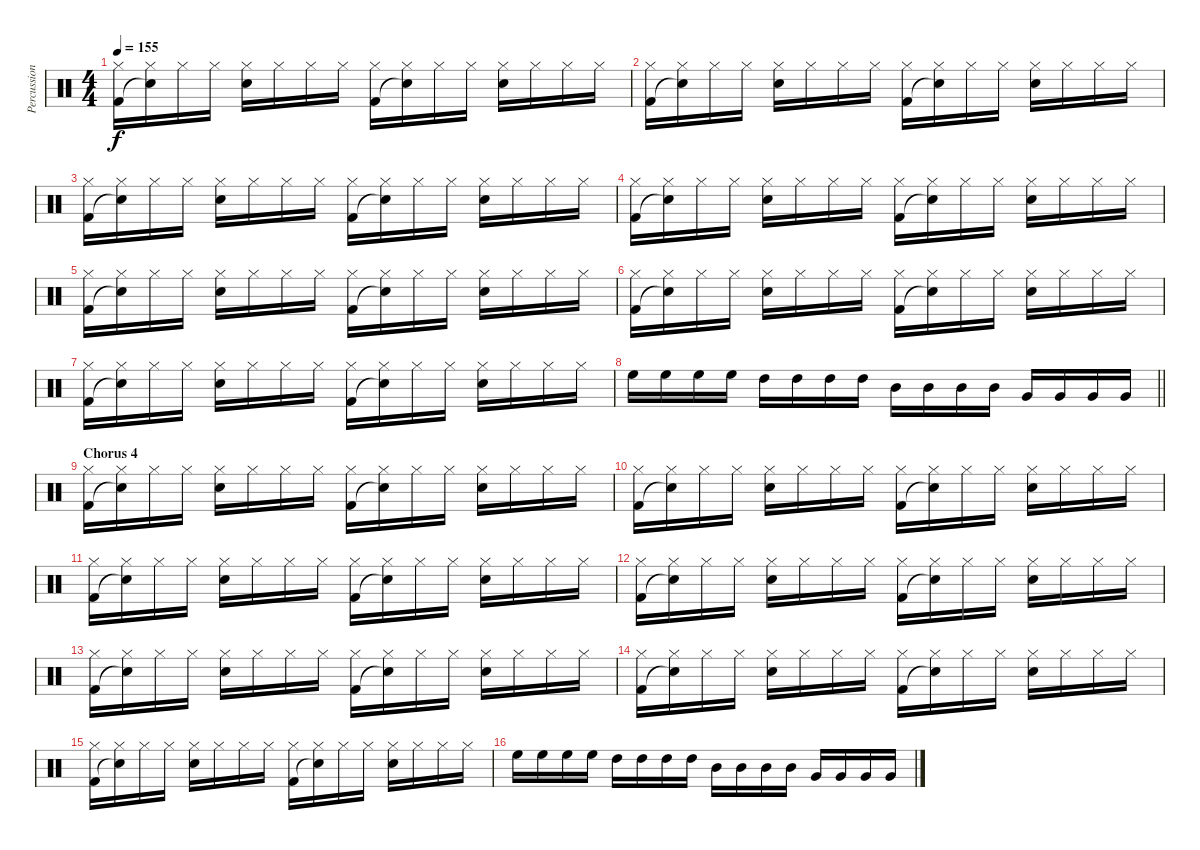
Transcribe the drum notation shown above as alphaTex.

\track ("Percussion" "Percussion") {instrument percussion}
\staff {score}
\articulation defaults
\ts (4 4)
\tempo 155
\clef neutral
\ks c
("Hi-Hat (closed)" "Kick (hit) 2").16{dy f} ("Hi-Hat (closed)" "Snare (hit)"{t}).16 "Hi-Hat (closed)".16 "Hi-Hat (closed)".16 ("Hi-Hat (closed)" "Snare (hit) 2").16 "Hi-Hat (closed)".16 "Hi-Hat (closed)".16 "Hi-Hat (closed)".16 ("Hi-Hat (closed)" "Kick (hit) 2").16 ("Hi-Hat (closed)" "Snare (hit)"{t}).16 "Hi-Hat (closed)".16 "Hi-Hat (closed)".16 ("Hi-Hat (closed)" "Snare (hit) 2").16 "Hi-Hat (closed)".16 "Hi-Hat (closed)".16 "Hi-Hat (closed)".16 |
("Hi-Hat (closed)" "Kick (hit) 2").16 ("Hi-Hat (closed)" "Snare (hit)"{t}).16 "Hi-Hat (closed)".16 "Hi-Hat (closed)".16 ("Hi-Hat (closed)" "Snare (hit) 2").16 "Hi-Hat (closed)".16 "Hi-Hat (closed)".16 "Hi-Hat (closed)".16 ("Hi-Hat (closed)" "Kick (hit) 2").16 ("Hi-Hat (closed)" "Snare (hit)"{t}).16 "Hi-Hat (closed)".16 "Hi-Hat (closed)".16 ("Hi-Hat (closed)" "Snare (hit) 2").16 "Hi-Hat (closed)".16 "Hi-Hat (closed)".16 "Hi-Hat (closed)".16 |
("Hi-Hat (closed)" "Kick (hit) 2").16 ("Hi-Hat (closed)" "Snare (hit)"{t}).16 "Hi-Hat (closed)".16 "Hi-Hat (closed)".16 ("Hi-Hat (closed)" "Snare (hit) 2").16 "Hi-Hat (closed)".16 "Hi-Hat (closed)".16 "Hi-Hat (closed)".16 ("Hi-Hat (closed)" "Kick (hit) 2").16 ("Hi-Hat (closed)" "Snare (hit)"{t}).16 "Hi-Hat (closed)".16 "Hi-Hat (closed)".16 ("Hi-Hat (closed)" "Snare (hit) 2").16 "Hi-Hat (closed)".16 "Hi-Hat (closed)".16 "Hi-Hat (closed)".16 |
("Hi-Hat (closed)" "Kick (hit) 2").16 ("Hi-Hat (closed)" "Snare (hit)"{t}).16 "Hi-Hat (closed)".16 "Hi-Hat (closed)".16 ("Hi-Hat (closed)" "Snare (hit) 2").16 "Hi-Hat (closed)".16 "Hi-Hat (closed)".16 "Hi-Hat (closed)".16 ("Hi-Hat (closed)" "Kick (hit) 2").16 ("Hi-Hat (closed)" "Snare (hit)"{t}).16 "Hi-Hat (closed)".16 "Hi-Hat (closed)".16 ("Hi-Hat (closed)" "Snare (hit) 2").16 "Hi-Hat (closed)".16 "Hi-Hat (closed)".16 "Hi-Hat (closed)".16 |
("Hi-Hat (closed)" "Kick (hit) 2").16 ("Hi-Hat (closed)" "Snare (hit)"{t}).16 "Hi-Hat (closed)".16 "Hi-Hat (closed)".16 ("Hi-Hat (closed)" "Snare (hit) 2").16 "Hi-Hat (closed)".16 "Hi-Hat (closed)".16 "Hi-Hat (closed)".16 ("Hi-Hat (closed)" "Kick (hit) 2").16 ("Hi-Hat (closed)" "Snare (hit)"{t}).16 "Hi-Hat (closed)".16 "Hi-Hat (closed)".16 ("Hi-Hat (closed)" "Snare (hit) 2").16 "Hi-Hat (closed)".16 "Hi-Hat (closed)".16 "Hi-Hat (closed)".16 |
("Hi-Hat (closed)" "Kick (hit) 2").16 ("Hi-Hat (closed)" "Snare (hit)"{t}).16 "Hi-Hat (closed)".16 "Hi-Hat (closed)".16 ("Hi-Hat (closed)" "Snare (hit) 2").16 "Hi-Hat (closed)".16 "Hi-Hat (closed)".16 "Hi-Hat (closed)".16 ("Hi-Hat (closed)" "Kick (hit) 2").16 ("Hi-Hat (closed)" "Snare (hit)"{t}).16 "Hi-Hat (closed)".16 "Hi-Hat (closed)".16 ("Hi-Hat (closed)" "Snare (hit) 2").16 "Hi-Hat (closed)".16 "Hi-Hat (closed)".16 "Hi-Hat (closed)".16 |
("Hi-Hat (closed)" "Kick (hit) 2").16 ("Hi-Hat (closed)" "Snare (hit)"{t}).16 "Hi-Hat (closed)".16 "Hi-Hat (closed)".16 ("Hi-Hat (closed)" "Snare (hit) 2").16 "Hi-Hat (closed)".16 "Hi-Hat (closed)".16 "Hi-Hat (closed)".16 ("Hi-Hat (closed)" "Kick (hit) 2").16 ("Hi-Hat (closed)" "Snare (hit)"{t}).16 "Hi-Hat (closed)".16 "Hi-Hat (closed)".16 ("Hi-Hat (closed)" "Snare (hit) 2").16 "Hi-Hat (closed)".16 "Hi-Hat (closed)".16 "Hi-Hat (closed)".16 |
\barLineRight lightlight "High Floor Tom (hit)".16 "High Floor Tom (hit)".16 "High Floor Tom (hit)".16 "High Floor Tom (hit)".16 "High Tom (hit)".16 "High Tom (hit)".16 "High Tom (hit)".16 "High Tom (hit)".16 "Mid Tom (hit)".16 "Mid Tom (hit)".16 "Mid Tom (hit)".16 "Mid Tom (hit)".16 "Very Low Tom (hit)".16 "Very Low Tom (hit)".16 "Very Low Tom (hit)".16 "Very Low Tom (hit)".16
|
\section ("" "Chorus 4")
("Hi-Hat (closed)" "Kick (hit) 2").16 ("Hi-Hat (closed)" "Snare (hit)"{t}).16 "Hi-Hat (closed)".16 "Hi-Hat (closed)".16 ("Hi-Hat (closed)" "Snare (hit) 2").16 "Hi-Hat (closed)".16 "Hi-Hat (closed)".16 "Hi-Hat (closed)".16 ("Hi-Hat (closed)" "Kick (hit) 2").16 ("Hi-Hat (closed)" "Snare (hit)"{t}).16 "Hi-Hat (closed)".16 "Hi-Hat (closed)".16 ("Hi-Hat (closed)" "Snare (hit) 2").16 "Hi-Hat (closed)".16 "Hi-Hat (closed)".16 "Hi-Hat (closed)".16 |
("Hi-Hat (closed)" "Kick (hit) 2").16 ("Hi-Hat (closed)" "Snare (hit)"{t}).16 "Hi-Hat (closed)".16 "Hi-Hat (closed)".16 ("Hi-Hat (closed)" "Snare (hit) 2").16 "Hi-Hat (closed)".16 "Hi-Hat (closed)".16 "Hi-Hat (closed)".16 ("Hi-Hat (closed)" "Kick (hit) 2").16 ("Hi-Hat (closed)" "Snare (hit)"{t}).16 "Hi-Hat (closed)".16 "Hi-Hat (closed)".16 ("Hi-Hat (closed)" "Snare (hit) 2").16 "Hi-Hat (closed)".16 "Hi-Hat (closed)".16 "Hi-Hat (closed)".16 |
("Hi-Hat (closed)" "Kick (hit) 2").16 ("Hi-Hat (closed)" "Snare (hit)"{t}).16 "Hi-Hat (closed)".16 "Hi-Hat (closed)".16 ("Hi-Hat (closed)" "Snare (hit) 2").16 "Hi-Hat (closed)".16 "Hi-Hat (closed)".16 "Hi-Hat (closed)".16 ("Hi-Hat (closed)" "Kick (hit) 2").16 ("Hi-Hat (closed)" "Snare (hit)"{t}).16 "Hi-Hat (closed)".16 "Hi-Hat (closed)".16 ("Hi-Hat (closed)" "Snare (hit) 2").16 "Hi-Hat (closed)".16 "Hi-Hat (closed)".16 "Hi-Hat (closed)".16 |
("Hi-Hat (closed)" "Kick (hit) 2").16 ("Hi-Hat (closed)" "Snare (hit)"{t}).16 "Hi-Hat (closed)".16 "Hi-Hat (closed)".16 ("Hi-Hat (closed)" "Snare (hit) 2").16 "Hi-Hat (closed)".16 "Hi-Hat (closed)".16 "Hi-Hat (closed)".16 ("Hi-Hat (closed)" "Kick (hit) 2").16 ("Hi-Hat (closed)" "Snare (hit)"{t}).16 "Hi-Hat (closed)".16 "Hi-Hat (closed)".16 ("Hi-Hat (closed)" "Snare (hit) 2").16 "Hi-Hat (closed)".16 "Hi-Hat (closed)".16 "Hi-Hat (closed)".16 |
("Hi-Hat (closed)" "Kick (hit) 2").16 ("Hi-Hat (closed)" "Snare (hit)"{t}).16 "Hi-Hat (closed)".16 "Hi-Hat (closed)".16 ("Hi-Hat (closed)" "Snare (hit) 2").16 "Hi-Hat (closed)".16 "Hi-Hat (closed)".16 "Hi-Hat (closed)".16 ("Hi-Hat (closed)" "Kick (hit) 2").16 ("Hi-Hat (closed)" "Snare (hit)"{t}).16 "Hi-Hat (closed)".16 "Hi-Hat (closed)".16 ("Hi-Hat (closed)" "Snare (hit) 2").16 "Hi-Hat (closed)".16 "Hi-Hat (closed)".16 "Hi-Hat (closed)".16 |
("Hi-Hat (closed)" "Kick (hit) 2").16 ("Hi-Hat (closed)" "Snare (hit)"{t}).16 "Hi-Hat (closed)".16 "Hi-Hat (closed)".16 ("Hi-Hat (closed)" "Snare (hit) 2").16 "Hi-Hat (closed)".16 "Hi-Hat (closed)".16 "Hi-Hat (closed)".16 ("Hi-Hat (closed)" "Kick (hit) 2").16 ("Hi-Hat (closed)" "Snare (hit)"{t}).16 "Hi-Hat (closed)".16 "Hi-Hat (closed)".16 ("Hi-Hat (closed)" "Snare (hit) 2").16 "Hi-Hat (closed)".16 "Hi-Hat (closed)".16 "Hi-Hat (closed)".16 |
("Hi-Hat (closed)" "Kick (hit) 2").16 ("Hi-Hat (closed)" "Snare (hit)"{t}).16 "Hi-Hat (closed)".16 "Hi-Hat (closed)".16 ("Hi-Hat (closed)" "Snare (hit) 2").16 "Hi-Hat (closed)".16 "Hi-Hat (closed)".16 "Hi-Hat (closed)".16 ("Hi-Hat (closed)" "Kick (hit) 2").16 ("Hi-Hat (closed)" "Snare (hit)"{t}).16 "Hi-Hat (closed)".16 "Hi-Hat (closed)".16 ("Hi-Hat (closed)" "Snare (hit) 2").16 "Hi-Hat (closed)".16 "Hi-Hat (closed)".16 "Hi-Hat (closed)".16 |
"High Floor Tom (hit)".16 "High Floor Tom (hit)".16 "High Floor Tom (hit)".16 "High Floor Tom (hit)".16 "High Tom (hit)".16 "High Tom (hit)".16 "High Tom (hit)".16 "High Tom (hit)".16 "Mid Tom (hit)".16 "Mid Tom (hit)".16 "Mid Tom (hit)".16 "Mid Tom (hit)".16 "Very Low Tom (hit)".16 "Very Low Tom (hit)".16 "Very Low Tom (hit)".16 "Very Low Tom (hit)".16
